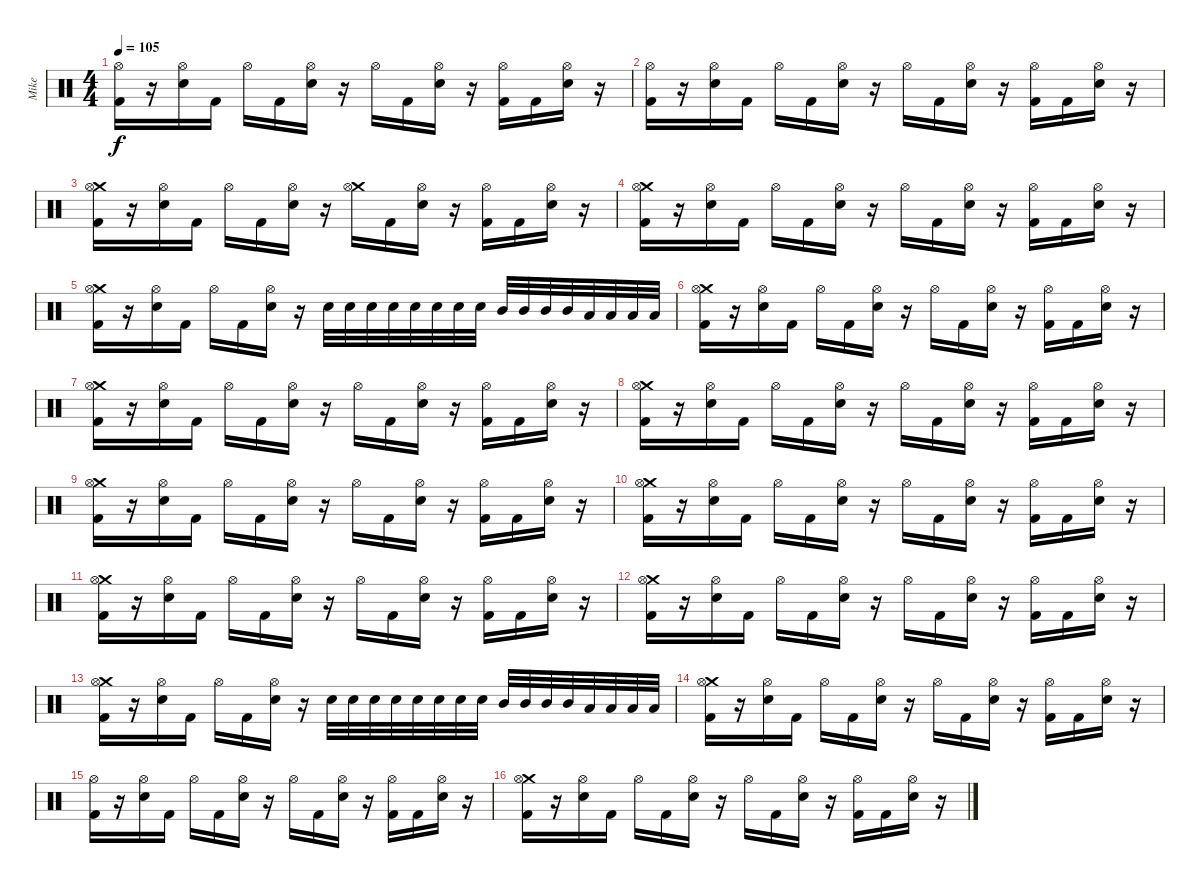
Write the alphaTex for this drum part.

\track ("Mike" "Mike") {instrument percussion}
\staff {score}
\articulation defaults
\ts (4 4)
\tempo 105
\clef neutral
\ks c
("Hi-Hat (open)" "Kick (hit) 2").16{dy f} r.16 ("Hi-Hat (open)" "Electric Snare (hit)").16 "Kick (hit) 2".16 "Hi-Hat (open)".16 "Kick (hit) 2".16 ("Hi-Hat (open)" "Electric Snare (hit)").16 r.16 "Hi-Hat (open)".16 "Kick (hit) 2".16 ("Hi-Hat (open)" "Electric Snare (hit)").16 r.16 ("Hi-Hat (open)" "Kick (hit) 2").16 "Kick (hit) 2".16 ("Hi-Hat (open)" "Electric Snare (hit)").16 r.16 |
("Hi-Hat (open)" "Kick (hit) 2").16 r.16 ("Hi-Hat (open)" "Electric Snare (hit)").16 "Kick (hit) 2".16 "Hi-Hat (open)".16 "Kick (hit) 2".16 ("Hi-Hat (open)" "Electric Snare (hit)").16 r.16 "Hi-Hat (open)".16 "Kick (hit) 2".16 ("Hi-Hat (open)" "Electric Snare (hit)").16 r.16 ("Hi-Hat (open)" "Kick (hit) 2").16 "Kick (hit) 2".16 ("Hi-Hat (open)" "Electric Snare (hit)").16 r.16 |
("Crash medium (hit)" "Hi-Hat (open)" "Kick (hit) 2").16 r.16 ("Hi-Hat (open)" "Electric Snare (hit)").16 "Kick (hit) 2".16 "Hi-Hat (open)".16 "Kick (hit) 2".16 ("Hi-Hat (open)" "Electric Snare (hit)").16 r.16 ("Crash medium (hit)" "Hi-Hat (open)").16 "Kick (hit) 2".16 ("Hi-Hat (open)" "Electric Snare (hit)").16 r.16 ("Hi-Hat (open)" "Kick (hit) 2").16 "Kick (hit) 2".16 ("Hi-Hat (open)" "Electric Snare (hit)").16 r.16 |
("Crash medium (hit)" "Hi-Hat (open)" "Kick (hit) 2").16 r.16 ("Hi-Hat (open)" "Electric Snare (hit)").16 "Kick (hit) 2".16 "Hi-Hat (open)".16 "Kick (hit) 2".16 ("Hi-Hat (open)" "Electric Snare (hit)").16 r.16 "Hi-Hat (open)".16 "Kick (hit) 2".16 ("Hi-Hat (open)" "Electric Snare (hit)").16 r.16 ("Hi-Hat (open)" "Kick (hit) 2").16 "Kick (hit) 2".16 ("Hi-Hat (open)" "Electric Snare (hit)").16 r.16 |
("Crash medium (hit)" "Hi-Hat (open)" "Kick (hit) 2").16 r.16 ("Hi-Hat (open)" "Electric Snare (hit)").16 "Kick (hit) 2".16 "Hi-Hat (open)".16 "Kick (hit) 2".16 ("Hi-Hat (open)" "Electric Snare (hit)").16 r.16 "Electric Snare (hit)".32 "Electric Snare (hit)".32 "Electric Snare (hit)".32 "Electric Snare (hit)".32 "Electric Snare (hit)".32 "Electric Snare (hit)".32 "Electric Snare (hit)".32 "Electric Snare (hit)".32 "Mid Tom (hit)".32 "Mid Tom (hit)".32 "Mid Tom (hit)".32 "Mid Tom (hit)".32 "Low Tom (hit)".32 "Low Tom (hit)".32 "Low Tom (hit)".32 "Low Tom (hit)".32 |
("Crash medium (hit)" "Hi-Hat (open)" "Kick (hit) 2").16 r.16 ("Hi-Hat (open)" "Electric Snare (hit)").16 "Kick (hit) 2".16 "Hi-Hat (open)".16 "Kick (hit) 2".16 ("Hi-Hat (open)" "Electric Snare (hit)").16 r.16 "Hi-Hat (open)".16 "Kick (hit) 2".16 ("Hi-Hat (open)" "Electric Snare (hit)").16 r.16 ("Hi-Hat (open)" "Kick (hit) 2").16 "Kick (hit) 2".16 ("Hi-Hat (open)" "Electric Snare (hit)").16 r.16 |
("Crash medium (hit)" "Hi-Hat (open)" "Kick (hit) 2").16 r.16 ("Hi-Hat (open)" "Electric Snare (hit)").16 "Kick (hit) 2".16 "Hi-Hat (open)".16 "Kick (hit) 2".16 ("Hi-Hat (open)" "Electric Snare (hit)").16 r.16 "Hi-Hat (open)".16 "Kick (hit) 2".16 ("Hi-Hat (open)" "Electric Snare (hit)").16 r.16 ("Hi-Hat (open)" "Kick (hit) 2").16 "Kick (hit) 2".16 ("Hi-Hat (open)" "Electric Snare (hit)").16 r.16 |
("Crash medium (hit)" "Hi-Hat (open)" "Kick (hit) 2").16 r.16 ("Hi-Hat (open)" "Electric Snare (hit)").16 "Kick (hit) 2".16 "Hi-Hat (open)".16 "Kick (hit) 2".16 ("Hi-Hat (open)" "Electric Snare (hit)").16 r.16 "Hi-Hat (open)".16 "Kick (hit) 2".16 ("Hi-Hat (open)" "Electric Snare (hit)").16 r.16 ("Hi-Hat (open)" "Kick (hit) 2").16 "Kick (hit) 2".16 ("Hi-Hat (open)" "Electric Snare (hit)").16 r.16 |
("Crash medium (hit)" "Hi-Hat (open)" "Kick (hit) 2").16 r.16 ("Hi-Hat (open)" "Electric Snare (hit)").16 "Kick (hit) 2".16 "Hi-Hat (open)".16 "Kick (hit) 2".16 ("Hi-Hat (open)" "Electric Snare (hit)").16 r.16 "Hi-Hat (open)".16 "Kick (hit) 2".16 ("Hi-Hat (open)" "Electric Snare (hit)").16 r.16 ("Hi-Hat (open)" "Kick (hit) 2").16 "Kick (hit) 2".16 ("Hi-Hat (open)" "Electric Snare (hit)").16 r.16 |
("Crash medium (hit)" "Hi-Hat (open)" "Kick (hit) 2").16 r.16 ("Hi-Hat (open)" "Electric Snare (hit)").16 "Kick (hit) 2".16 "Hi-Hat (open)".16 "Kick (hit) 2".16 ("Hi-Hat (open)" "Electric Snare (hit)").16 r.16 "Hi-Hat (open)".16 "Kick (hit) 2".16 ("Hi-Hat (open)" "Electric Snare (hit)").16 r.16 ("Hi-Hat (open)" "Kick (hit) 2").16 "Kick (hit) 2".16 ("Hi-Hat (open)" "Electric Snare (hit)").16 r.16 |
("Crash medium (hit)" "Hi-Hat (open)" "Kick (hit) 2").16 r.16 ("Hi-Hat (open)" "Electric Snare (hit)").16 "Kick (hit) 2".16 "Hi-Hat (open)".16 "Kick (hit) 2".16 ("Hi-Hat (open)" "Electric Snare (hit)").16 r.16 "Hi-Hat (open)".16 "Kick (hit) 2".16 ("Hi-Hat (open)" "Electric Snare (hit)").16 r.16 ("Hi-Hat (open)" "Kick (hit) 2").16 "Kick (hit) 2".16 ("Hi-Hat (open)" "Electric Snare (hit)").16 r.16 |
("Crash medium (hit)" "Hi-Hat (open)" "Kick (hit) 2").16 r.16 ("Hi-Hat (open)" "Electric Snare (hit)").16 "Kick (hit) 2".16 "Hi-Hat (open)".16 "Kick (hit) 2".16 ("Hi-Hat (open)" "Electric Snare (hit)").16 r.16 "Hi-Hat (open)".16 "Kick (hit) 2".16 ("Hi-Hat (open)" "Electric Snare (hit)").16 r.16 ("Hi-Hat (open)" "Kick (hit) 2").16 "Kick (hit) 2".16 ("Hi-Hat (open)" "Electric Snare (hit)").16 r.16 |
("Crash medium (hit)" "Hi-Hat (open)" "Kick (hit) 2").16 r.16 ("Hi-Hat (open)" "Electric Snare (hit)").16 "Kick (hit) 2".16 "Hi-Hat (open)".16 "Kick (hit) 2".16 ("Hi-Hat (open)" "Electric Snare (hit)").16 r.16 "Electric Snare (hit)".32 "Electric Snare (hit)".32 "Electric Snare (hit)".32 "Electric Snare (hit)".32 "Electric Snare (hit)".32 "Electric Snare (hit)".32 "Electric Snare (hit)".32 "Electric Snare (hit)".32 "Mid Tom (hit)".32 "Mid Tom (hit)".32 "Mid Tom (hit)".32 "Mid Tom (hit)".32 "Low Tom (hit)".32 "Low Tom (hit)".32 "Low Tom (hit)".32 "Low Tom (hit)".32 |
("Crash medium (hit)" "Hi-Hat (open)" "Kick (hit) 2").16 r.16 ("Hi-Hat (open)" "Electric Snare (hit)").16 "Kick (hit) 2".16 "Hi-Hat (open)".16 "Kick (hit) 2".16 ("Hi-Hat (open)" "Electric Snare (hit)").16 r.16 "Hi-Hat (open)".16 "Kick (hit) 2".16 ("Hi-Hat (open)" "Electric Snare (hit)").16 r.16 ("Hi-Hat (open)" "Kick (hit) 2").16 "Kick (hit) 2".16 ("Hi-Hat (open)" "Electric Snare (hit)").16 r.16 |
("Hi-Hat (open)" "Kick (hit) 2").16 r.16 ("Hi-Hat (open)" "Electric Snare (hit)").16 "Kick (hit) 2".16 "Hi-Hat (open)".16 "Kick (hit) 2".16 ("Hi-Hat (open)" "Electric Snare (hit)").16 r.16 "Hi-Hat (open)".16 "Kick (hit) 2".16 ("Hi-Hat (open)" "Electric Snare (hit)").16 r.16 ("Hi-Hat (open)" "Kick (hit) 2").16 "Kick (hit) 2".16 ("Hi-Hat (open)" "Electric Snare (hit)").16 r.16 |
("Crash medium (hit)" "Hi-Hat (open)" "Kick (hit) 2").16 r.16 ("Hi-Hat (open)" "Electric Snare (hit)").16 "Kick (hit) 2".16 "Hi-Hat (open)".16 "Kick (hit) 2".16 ("Hi-Hat (open)" "Electric Snare (hit)").16 r.16 "Hi-Hat (open)".16 "Kick (hit) 2".16 ("Hi-Hat (open)" "Electric Snare (hit)").16 r.16 ("Hi-Hat (open)" "Kick (hit) 2").16 "Kick (hit) 2".16 ("Hi-Hat (open)" "Electric Snare (hit)").16 r.16
